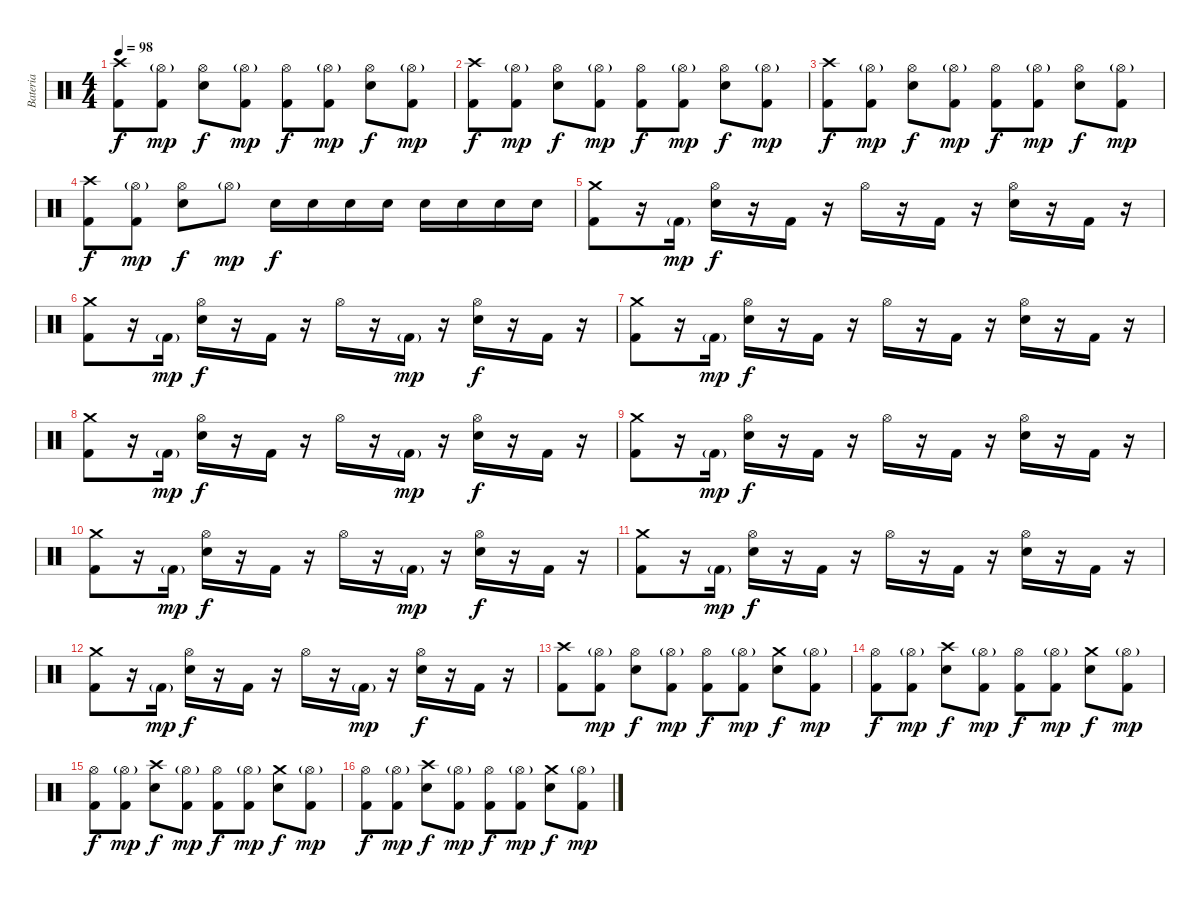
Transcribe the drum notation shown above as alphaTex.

\track ("Bateria" "Bateria") {instrument percussion}
\staff {score}
\articulation defaults
\ts (4 4)
\tempo 98
\clef neutral
\ks c
("Crash high (hit)" "Kick (hit) 2").8{dy f} ("Hi-Hat (open)"{g} "Kick (hit) 2").8{dy mp} ("Hi-Hat (open)" "Snare (hit) 2").8{dy f} ("Hi-Hat (open)"{g} "Kick (hit) 2").8{dy mp} ("Hi-Hat (open)" "Kick (hit) 2").8{dy f} ("Hi-Hat (open)"{g} "Kick (hit) 2").8{dy mp} ("Hi-Hat (open)" "Snare (hit) 2").8{dy f} ("Hi-Hat (open)"{g} "Kick (hit) 2").8{dy mp} |
("Crash high (hit)" "Kick (hit) 2").8{dy f} ("Hi-Hat (open)"{g} "Kick (hit) 2").8{dy mp} ("Hi-Hat (open)" "Snare (hit) 2").8{dy f} ("Hi-Hat (open)"{g} "Kick (hit) 2").8{dy mp} ("Hi-Hat (open)" "Kick (hit) 2").8{dy f} ("Hi-Hat (open)"{g} "Kick (hit) 2").8{dy mp} ("Hi-Hat (open)" "Snare (hit) 2").8{dy f} ("Hi-Hat (open)"{g} "Kick (hit) 2").8{dy mp} |
("Crash high (hit)" "Kick (hit) 2").8{dy f} ("Hi-Hat (open)"{g} "Kick (hit) 2").8{dy mp} ("Hi-Hat (open)" "Snare (hit) 2").8{dy f} ("Hi-Hat (open)"{g} "Kick (hit) 2").8{dy mp} ("Hi-Hat (open)" "Kick (hit) 2").8{dy f} ("Hi-Hat (open)"{g} "Kick (hit) 2").8{dy mp} ("Hi-Hat (open)" "Snare (hit) 2").8{dy f} ("Hi-Hat (open)"{g} "Kick (hit) 2").8{dy mp} |
("Crash high (hit)" "Kick (hit) 2").8{dy f} ("Hi-Hat (open)"{g} "Kick (hit) 2").8{dy mp} ("Hi-Hat (open)" "Snare (hit) 2").8{dy f} "Hi-Hat (open)"{g}.8{dy mp} "Snare (hit) 2".16{dy f} "Snare (hit) 2".16 "Snare (hit) 2".16 "Snare (hit) 2".16 "Snare (hit) 2".16 "Snare (hit) 2".16 "Snare (hit) 2".16 "Snare (hit) 2".16 |
("Crash medium (hit)" "Kick (hit) 2").8 r.16 "Kick (hit) 2"{g}.16{dy mp} ("Hi-Hat (open)" "Snare (hit) 2").16{dy f} r.16 "Kick (hit) 2".16 r.16 "Hi-Hat (open)".16 r.16 "Kick (hit) 2".16 r.16 ("Hi-Hat (open)" "Snare (hit) 2").16 r.16 "Kick (hit) 2".16 r.16 |
("Crash medium (hit)" "Kick (hit) 2").8 r.16 "Kick (hit) 2"{g}.16{dy mp} ("Hi-Hat (open)" "Snare (hit) 2").16{dy f} r.16 "Kick (hit) 2".16 r.16 "Hi-Hat (open)".16 r.16 "Kick (hit) 2"{g}.16{dy mp} r.16 ("Hi-Hat (open)" "Snare (hit) 2").16{dy f} r.16 "Kick (hit) 2".16 r.16 |
("Crash medium (hit)" "Kick (hit) 2").8 r.16 "Kick (hit) 2"{g}.16{dy mp} ("Hi-Hat (open)" "Snare (hit) 2").16{dy f} r.16 "Kick (hit) 2".16 r.16 "Hi-Hat (open)".16 r.16 "Kick (hit) 2".16 r.16 ("Hi-Hat (open)" "Snare (hit) 2").16 r.16 "Kick (hit) 2".16 r.16 |
("Crash medium (hit)" "Kick (hit) 2").8 r.16 "Kick (hit) 2"{g}.16{dy mp} ("Hi-Hat (open)" "Snare (hit) 2").16{dy f} r.16 "Kick (hit) 2".16 r.16 "Hi-Hat (open)".16 r.16 "Kick (hit) 2"{g}.16{dy mp} r.16 ("Hi-Hat (open)" "Snare (hit) 2").16{dy f} r.16 "Kick (hit) 2".16 r.16 |
("Crash medium (hit)" "Kick (hit) 2").8 r.16 "Kick (hit) 2"{g}.16{dy mp} ("Hi-Hat (open)" "Snare (hit) 2").16{dy f} r.16 "Kick (hit) 2".16 r.16 "Hi-Hat (open)".16 r.16 "Kick (hit) 2".16 r.16 ("Hi-Hat (open)" "Snare (hit) 2").16 r.16 "Kick (hit) 2".16 r.16 |
("Crash medium (hit)" "Kick (hit) 2").8 r.16 "Kick (hit) 2"{g}.16{dy mp} ("Hi-Hat (open)" "Snare (hit) 2").16{dy f} r.16 "Kick (hit) 2".16 r.16 "Hi-Hat (open)".16 r.16 "Kick (hit) 2"{g}.16{dy mp} r.16 ("Hi-Hat (open)" "Snare (hit) 2").16{dy f} r.16 "Kick (hit) 2".16 r.16 |
("Crash medium (hit)" "Kick (hit) 2").8 r.16 "Kick (hit) 2"{g}.16{dy mp} ("Hi-Hat (open)" "Snare (hit) 2").16{dy f} r.16 "Kick (hit) 2".16 r.16 "Hi-Hat (open)".16 r.16 "Kick (hit) 2".16 r.16 ("Hi-Hat (open)" "Snare (hit) 2").16 r.16 "Kick (hit) 2".16 r.16 |
("Crash medium (hit)" "Kick (hit) 2").8 r.16 "Kick (hit) 2"{g}.16{dy mp} ("Hi-Hat (open)" "Snare (hit) 2").16{dy f} r.16 "Kick (hit) 2".16 r.16 "Hi-Hat (open)".16 r.16 "Kick (hit) 2"{g}.16{dy mp} r.16 ("Hi-Hat (open)" "Snare (hit) 2").16{dy f} r.16 "Kick (hit) 2".16 r.16 |
("Crash high (hit)" "Kick (hit) 2").8 ("Hi-Hat (open)"{g} "Kick (hit) 2").8{dy mp} ("Hi-Hat (open)" "Snare (hit) 2").8{dy f} ("Hi-Hat (open)"{g} "Kick (hit) 2").8{dy mp} ("Hi-Hat (open)" "Kick (hit) 2").8{dy f} ("Hi-Hat (open)"{g} "Kick (hit) 2").8{dy mp} ("Crash medium (hit)" "Snare (hit) 2").8{dy f} ("Hi-Hat (open)"{g} "Kick (hit) 2").8{dy mp} |
("Hi-Hat (open)" "Kick (hit) 2").8{dy f} ("Hi-Hat (open)"{g} "Kick (hit) 2").8{dy mp} ("Crash high (hit)" "Snare (hit) 2").8{dy f} ("Hi-Hat (open)"{g} "Kick (hit) 2").8{dy mp} ("Hi-Hat (open)" "Kick (hit) 2").8{dy f} ("Hi-Hat (open)"{g} "Kick (hit) 2").8{dy mp} ("Crash medium (hit)" "Snare (hit) 2").8{dy f} ("Hi-Hat (open)"{g} "Kick (hit) 2").8{dy mp} |
("Hi-Hat (open)" "Kick (hit) 2").8{dy f} ("Hi-Hat (open)"{g} "Kick (hit) 2").8{dy mp} ("Crash high (hit)" "Snare (hit) 2").8{dy f} ("Hi-Hat (open)"{g} "Kick (hit) 2").8{dy mp} ("Hi-Hat (open)" "Kick (hit) 2").8{dy f} ("Hi-Hat (open)"{g} "Kick (hit) 2").8{dy mp} ("Crash medium (hit)" "Snare (hit) 2").8{dy f} ("Hi-Hat (open)"{g} "Kick (hit) 2").8{dy mp} |
("Hi-Hat (open)" "Kick (hit) 2").8{dy f} ("Hi-Hat (open)"{g} "Kick (hit) 2").8{dy mp} ("Crash high (hit)" "Snare (hit) 2").8{dy f} ("Hi-Hat (open)"{g} "Kick (hit) 2").8{dy mp} ("Hi-Hat (open)" "Kick (hit) 2").8{dy f} ("Hi-Hat (open)"{g} "Kick (hit) 2").8{dy mp} ("Crash medium (hit)" "Snare (hit) 2").8{dy f} ("Hi-Hat (open)"{g} "Kick (hit) 2").8{dy mp}
